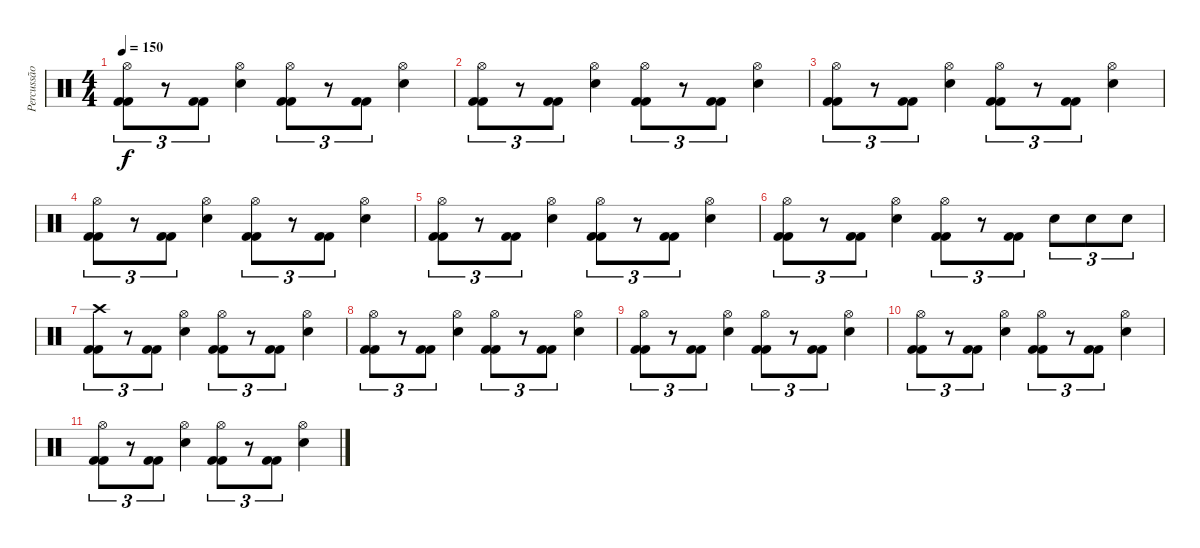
\track ("Percussão" "Percussão") {instrument percussion}
\staff {score}
\articulation defaults
\ts (4 4)
\tempo 150
\clef neutral
\ks c
("Hi-Hat (open)" "Kick (hit) 2" "Kick (hit) 2").8{tu (3 2) dy f} r.8{tu (3 2)} ("Kick (hit) 2" "Kick (hit) 2").8{tu (3 2)} ("Hi-Hat (open)" "Electric Snare (hit)").4 ("Hi-Hat (open)" "Kick (hit) 2" "Kick (hit) 2").8{tu (3 2)} r.8{tu (3 2)} ("Kick (hit) 2" "Kick (hit) 2").8{tu (3 2)} ("Hi-Hat (open)" "Electric Snare (hit)").4 |
("Hi-Hat (open)" "Kick (hit) 2" "Kick (hit) 2").8{tu (3 2)} r.8{tu (3 2)} ("Kick (hit) 2" "Kick (hit) 2").8{tu (3 2)} ("Hi-Hat (open)" "Electric Snare (hit)").4 ("Hi-Hat (open)" "Kick (hit) 2" "Kick (hit) 2").8{tu (3 2)} r.8{tu (3 2)} ("Kick (hit) 2" "Kick (hit) 2").8{tu (3 2)} ("Hi-Hat (open)" "Electric Snare (hit)").4 |
("Hi-Hat (open)" "Kick (hit) 2" "Kick (hit) 2").8{tu (3 2)} r.8{tu (3 2)} ("Kick (hit) 2" "Kick (hit) 2").8{tu (3 2)} ("Hi-Hat (open)" "Electric Snare (hit)").4 ("Hi-Hat (open)" "Kick (hit) 2" "Kick (hit) 2").8{tu (3 2)} r.8{tu (3 2)} ("Kick (hit) 2" "Kick (hit) 2").8{tu (3 2)} ("Hi-Hat (open)" "Electric Snare (hit)").4 |
("Hi-Hat (open)" "Kick (hit) 2" "Kick (hit) 2").8{tu (3 2)} r.8{tu (3 2)} ("Kick (hit) 2" "Kick (hit) 2").8{tu (3 2)} ("Hi-Hat (open)" "Electric Snare (hit)").4 ("Hi-Hat (open)" "Kick (hit) 2" "Kick (hit) 2").8{tu (3 2)} r.8{tu (3 2)} ("Kick (hit) 2" "Kick (hit) 2").8{tu (3 2)} ("Hi-Hat (open)" "Electric Snare (hit)").4 |
("Hi-Hat (open)" "Kick (hit) 2" "Kick (hit) 2").8{tu (3 2)} r.8{tu (3 2)} ("Kick (hit) 2" "Kick (hit) 2").8{tu (3 2)} ("Hi-Hat (open)" "Electric Snare (hit)").4 ("Hi-Hat (open)" "Kick (hit) 2" "Kick (hit) 2").8{tu (3 2)} r.8{tu (3 2)} ("Kick (hit) 2" "Kick (hit) 2").8{tu (3 2)} ("Hi-Hat (open)" "Electric Snare (hit)").4 |
("Hi-Hat (open)" "Kick (hit) 2" "Kick (hit) 2").8{tu (3 2)} r.8{tu (3 2)} ("Kick (hit) 2" "Kick (hit) 2").8{tu (3 2)} ("Hi-Hat (open)" "Electric Snare (hit)").4 ("Hi-Hat (open)" "Kick (hit) 2" "Kick (hit) 2").8{tu (3 2)} r.8{tu (3 2)} ("Kick (hit) 2" "Kick (hit) 2").8{tu (3 2)} "Electric Snare (hit)".8{tu (3 2)} "Electric Snare (hit)".8{tu (3 2)} "Electric Snare (hit)".8{tu (3 2)} |
("Crash high (hit)" "Kick (hit) 2" "Kick (hit) 2").8{tu (3 2)} r.8{tu (3 2)} ("Kick (hit) 2" "Kick (hit) 2").8{tu (3 2)} ("Hi-Hat (open)" "Electric Snare (hit)").4 ("Hi-Hat (open)" "Kick (hit) 2" "Kick (hit) 2").8{tu (3 2)} r.8{tu (3 2)} ("Kick (hit) 2" "Kick (hit) 2").8{tu (3 2)} ("Hi-Hat (open)" "Electric Snare (hit)").4 |
("Hi-Hat (open)" "Kick (hit) 2" "Kick (hit) 2").8{tu (3 2)} r.8{tu (3 2)} ("Kick (hit) 2" "Kick (hit) 2").8{tu (3 2)} ("Hi-Hat (open)" "Electric Snare (hit)").4 ("Hi-Hat (open)" "Kick (hit) 2" "Kick (hit) 2").8{tu (3 2)} r.8{tu (3 2)} ("Kick (hit) 2" "Kick (hit) 2").8{tu (3 2)} ("Hi-Hat (open)" "Electric Snare (hit)").4 |
("Hi-Hat (open)" "Kick (hit) 2" "Kick (hit) 2").8{tu (3 2)} r.8{tu (3 2)} ("Kick (hit) 2" "Kick (hit) 2").8{tu (3 2)} ("Hi-Hat (open)" "Electric Snare (hit)").4 ("Hi-Hat (open)" "Kick (hit) 2" "Kick (hit) 2").8{tu (3 2)} r.8{tu (3 2)} ("Kick (hit) 2" "Kick (hit) 2").8{tu (3 2)} ("Hi-Hat (open)" "Electric Snare (hit)").4 |
("Hi-Hat (open)" "Kick (hit) 2" "Kick (hit) 2").8{tu (3 2)} r.8{tu (3 2)} ("Kick (hit) 2" "Kick (hit) 2").8{tu (3 2)} ("Hi-Hat (open)" "Electric Snare (hit)").4 ("Hi-Hat (open)" "Kick (hit) 2" "Kick (hit) 2").8{tu (3 2)} r.8{tu (3 2)} ("Kick (hit) 2" "Kick (hit) 2").8{tu (3 2)} ("Hi-Hat (open)" "Electric Snare (hit)").4 |
("Hi-Hat (open)" "Kick (hit) 2" "Kick (hit) 2").8{tu (3 2)} r.8{tu (3 2)} ("Kick (hit) 2" "Kick (hit) 2").8{tu (3 2)} ("Hi-Hat (open)" "Electric Snare (hit)").4 ("Hi-Hat (open)" "Kick (hit) 2" "Kick (hit) 2").8{tu (3 2)} r.8{tu (3 2)} ("Kick (hit) 2" "Kick (hit) 2").8{tu (3 2)} ("Hi-Hat (open)" "Electric Snare (hit)").4
